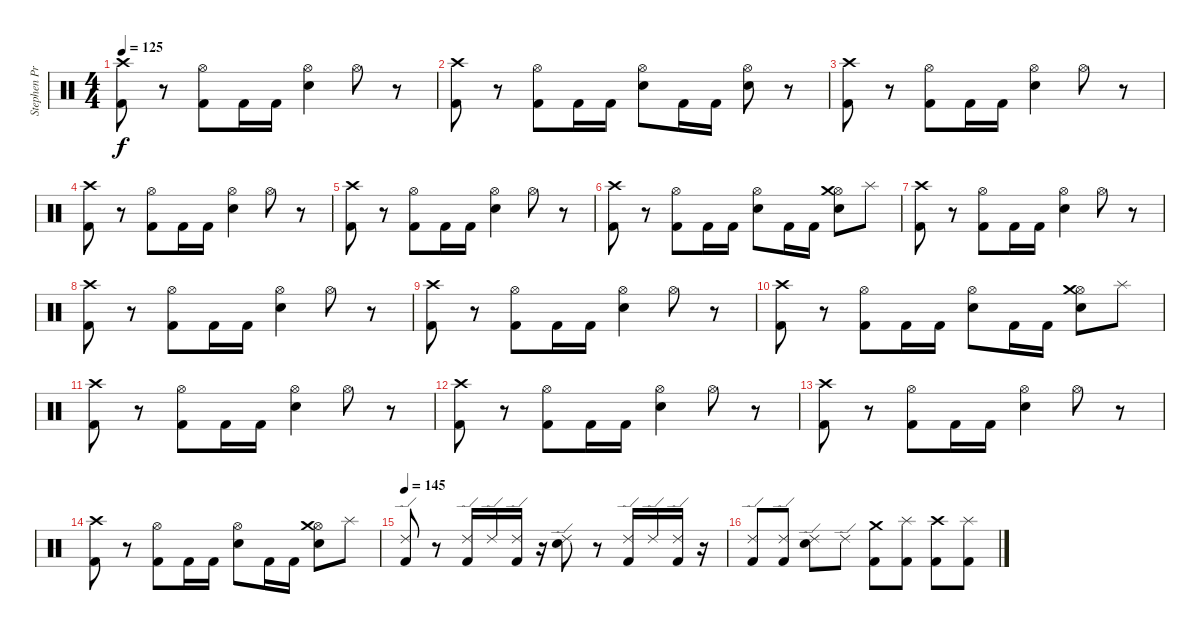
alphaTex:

\track ("Stephen Priestly" "Stephen Pr") {instrument percussion}
\staff {score}
\articulation defaults
\ts (4 4)
\tempo 125
\clef neutral
\ks c
("Crash high (hit)" "Kick (hit) 2").8{dy f} r.8 ("Hi-Hat (open)" "Kick (hit) 2").8 "Kick (hit) 2".16 "Kick (hit) 2".16 ("Hi-Hat (open)" "Snare (hit) 2").4 "Hi-Hat (open)".8 r.8 |
("Crash high (hit)" "Kick (hit) 2").8 r.8 ("Hi-Hat (open)" "Kick (hit) 2").8 "Kick (hit) 2".16 "Kick (hit) 2".16 ("Hi-Hat (open)" "Snare (hit) 2").8 "Kick (hit) 2".16 "Kick (hit) 2".16 ("Hi-Hat (open)" "Snare (hit) 2").8 r.8 |
("Crash high (hit)" "Kick (hit) 2").8 r.8 ("Hi-Hat (open)" "Kick (hit) 2").8 "Kick (hit) 2".16 "Kick (hit) 2".16 ("Hi-Hat (open)" "Snare (hit) 2").4 "Hi-Hat (open)".8 r.8 |
("Crash high (hit)" "Kick (hit) 2").8 r.8 ("Hi-Hat (open)" "Kick (hit) 2").8 "Kick (hit) 2".16 "Kick (hit) 2".16 ("Hi-Hat (open)" "Snare (hit) 2").4 "Hi-Hat (open)".8 r.8 |
("Crash high (hit)" "Kick (hit) 2").8 r.8 ("Hi-Hat (open)" "Kick (hit) 2").8 "Kick (hit) 2".16 "Kick (hit) 2".16 ("Hi-Hat (open)" "Snare (hit) 2").4 "Hi-Hat (open)".8 r.8 |
("Crash high (hit)" "Kick (hit) 2").8 r.8 ("Hi-Hat (open)" "Kick (hit) 2").8 "Kick (hit) 2".16 "Kick (hit) 2".16 ("Hi-Hat (open)" "Snare (hit) 2").8 "Kick (hit) 2".16 "Kick (hit) 2".16 ("Hi-Hat (open)" "Crash medium (hit)" "Snare (hit) 2").8 "Splash (hit)".8 |
("Crash high (hit)" "Kick (hit) 2").8 r.8 ("Hi-Hat (open)" "Kick (hit) 2").8 "Kick (hit) 2".16 "Kick (hit) 2".16 ("Hi-Hat (open)" "Snare (hit) 2").4 "Hi-Hat (open)".8 r.8 |
("Crash high (hit)" "Kick (hit) 2").8 r.8 ("Hi-Hat (open)" "Kick (hit) 2").8 "Kick (hit) 2".16 "Kick (hit) 2".16 ("Hi-Hat (open)" "Snare (hit) 2").4 "Hi-Hat (open)".8 r.8 |
("Crash high (hit)" "Kick (hit) 2").8 r.8 ("Hi-Hat (open)" "Kick (hit) 2").8 "Kick (hit) 2".16 "Kick (hit) 2".16 ("Hi-Hat (open)" "Snare (hit) 2").4 "Hi-Hat (open)".8 r.8 |
("Crash high (hit)" "Kick (hit) 2").8 r.8 ("Hi-Hat (open)" "Kick (hit) 2").8 "Kick (hit) 2".16 "Kick (hit) 2".16 ("Hi-Hat (open)" "Snare (hit) 2").8 "Kick (hit) 2".16 "Kick (hit) 2".16 ("Hi-Hat (open)" "Crash medium (hit)" "Snare (hit) 2").8 "Splash (hit)".8 |
("Crash high (hit)" "Kick (hit) 2").8 r.8 ("Hi-Hat (open)" "Kick (hit) 2").8 "Kick (hit) 2".16 "Kick (hit) 2".16 ("Hi-Hat (open)" "Snare (hit) 2").4 "Hi-Hat (open)".8 r.8 |
("Crash high (hit)" "Kick (hit) 2").8 r.8 ("Hi-Hat (open)" "Kick (hit) 2").8 "Kick (hit) 2".16 "Kick (hit) 2".16 ("Hi-Hat (open)" "Snare (hit) 2").4 "Hi-Hat (open)".8 r.8 |
("Crash high (hit)" "Kick (hit) 2").8 r.8 ("Hi-Hat (open)" "Kick (hit) 2").8 "Kick (hit) 2".16 "Kick (hit) 2".16 ("Hi-Hat (open)" "Snare (hit) 2").4 "Hi-Hat (open)".8 r.8 |
("Crash high (hit)" "Kick (hit) 2").8 r.8 ("Hi-Hat (open)" "Kick (hit) 2").8 "Kick (hit) 2".16 "Kick (hit) 2".16 ("Hi-Hat (open)" "Snare (hit) 2").8 "Kick (hit) 2".16 "Kick (hit) 2".16 ("Hi-Hat (open)" "Crash medium (hit)" "Snare (hit) 2").8 "Splash (hit)".8 |
\tempo 145
("Ride (edge) 2" "Kick (hit) 2").8 r.8 ("Ride (edge) 2" "Kick (hit) 2").16 "Ride (edge) 2".16 ("Ride (edge) 2" "Kick (hit) 2").16 r.16 ("Ride (edge) 2" "Snare (hit) 2").8 r.8 ("Ride (edge) 2" "Kick (hit) 2").16 "Ride (edge) 2".16 ("Ride (edge) 2" "Kick (hit) 2").16 r.16 |
("Ride (edge) 2" "Kick (hit) 2").8 ("Ride (edge) 2" "Kick (hit) 2").8 ("Ride (edge) 2" "Snare (hit) 2").8 "Ride (edge) 2".8 ("Crash medium (hit)" "Kick (hit) 2").8 ("Splash (hit)" "Kick (hit) 2").8 ("Crash high (hit)" "Kick (hit) 2").8 ("Splash (hit)" "Kick (hit) 2").8
